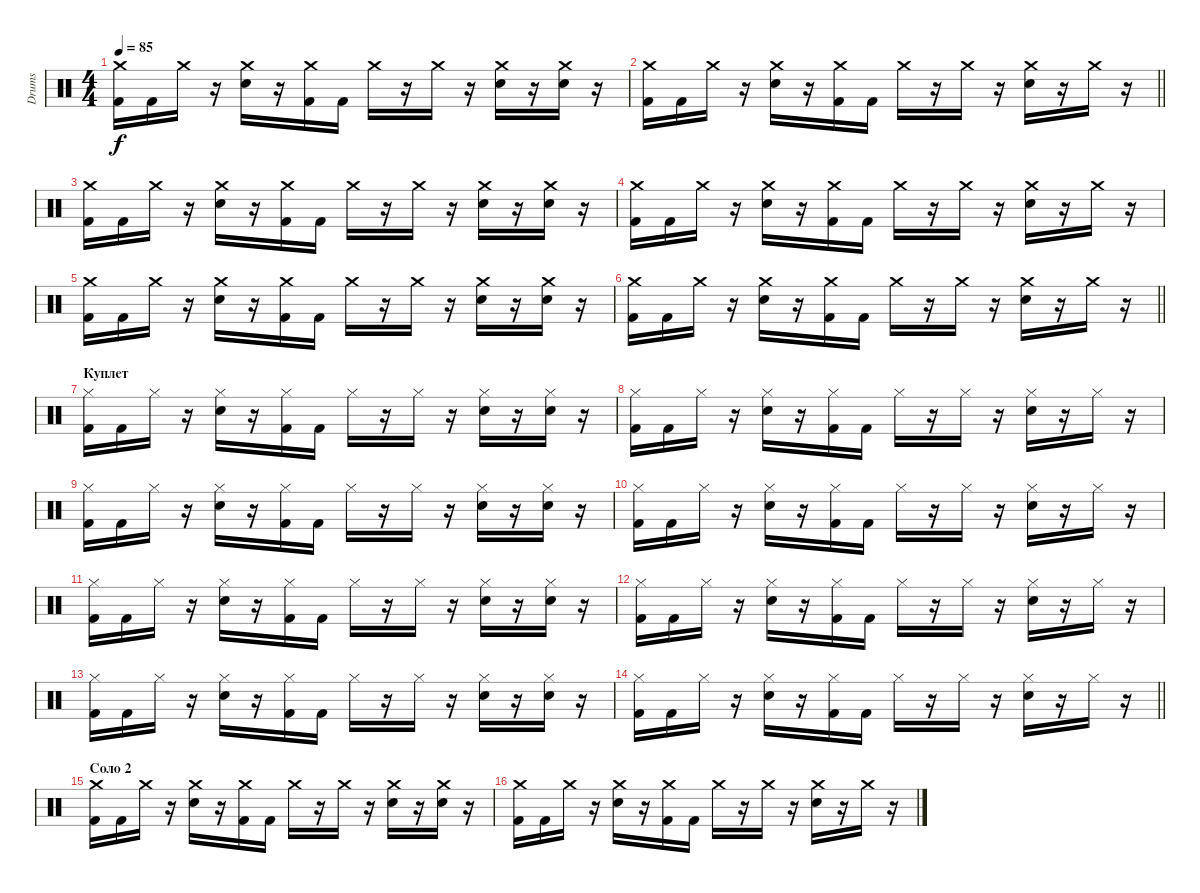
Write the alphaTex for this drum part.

\track ("Drums" "Drums") {instrument percussion}
\staff {score}
\articulation defaults
\ts (4 4)
\tempo 85
\clef neutral
\ks c
("Crash medium (hit)" "Kick (hit) 2").16{dy f} "Kick (hit) 2".16 "Crash medium (hit)".16 r.16 ("Crash medium (hit)" "Electric Snare (hit)").16 r.16 ("Crash medium (hit)" "Kick (hit) 2").16 "Kick (hit) 2".16 "Crash medium (hit)".16 r.16 "Crash medium (hit)".16 r.16 ("Crash medium (hit)" "Electric Snare (hit)").16 r.16 ("Crash medium (hit)" "Electric Snare (hit)").16 r.16 |
\barLineRight lightlight
("Crash medium (hit)" "Kick (hit) 2").16 "Kick (hit) 2".16 "Crash medium (hit)".16 r.16 ("Crash medium (hit)" "Electric Snare (hit)").16 r.16 ("Crash medium (hit)" "Kick (hit) 2").16 "Kick (hit) 2".16 "Crash medium (hit)".16 r.16 "Crash medium (hit)".16 r.16 ("Crash medium (hit)" "Electric Snare (hit)").16 r.16 "Crash medium (hit)".16 r.16 |
("Crash medium (hit)" "Kick (hit) 2").16 "Kick (hit) 2".16 "Crash medium (hit)".16 r.16 ("Crash medium (hit)" "Electric Snare (hit)").16 r.16 ("Crash medium (hit)" "Kick (hit) 2").16 "Kick (hit) 2".16 "Crash medium (hit)".16 r.16 "Crash medium (hit)".16 r.16 ("Crash medium (hit)" "Electric Snare (hit)").16 r.16 ("Crash medium (hit)" "Electric Snare (hit)").16 r.16 |
("Crash medium (hit)" "Kick (hit) 2").16 "Kick (hit) 2".16 "Crash medium (hit)".16 r.16 ("Crash medium (hit)" "Electric Snare (hit)").16 r.16 ("Crash medium (hit)" "Kick (hit) 2").16 "Kick (hit) 2".16 "Crash medium (hit)".16 r.16 "Crash medium (hit)".16 r.16 ("Crash medium (hit)" "Electric Snare (hit)").16 r.16 "Crash medium (hit)".16 r.16 |
("Crash medium (hit)" "Kick (hit) 2").16 "Kick (hit) 2".16 "Crash medium (hit)".16 r.16 ("Crash medium (hit)" "Electric Snare (hit)").16 r.16 ("Crash medium (hit)" "Kick (hit) 2").16 "Kick (hit) 2".16 "Crash medium (hit)".16 r.16 "Crash medium (hit)".16 r.16 ("Crash medium (hit)" "Electric Snare (hit)").16 r.16 ("Crash medium (hit)" "Electric Snare (hit)").16 r.16 |
\barLineRight lightlight
("Crash medium (hit)" "Kick (hit) 2").16 "Kick (hit) 2".16 "Crash medium (hit)".16 r.16 ("Crash medium (hit)" "Electric Snare (hit)").16 r.16 ("Crash medium (hit)" "Kick (hit) 2").16 "Kick (hit) 2".16 "Crash medium (hit)".16 r.16 "Crash medium (hit)".16 r.16 ("Crash medium (hit)" "Electric Snare (hit)").16 r.16 "Crash medium (hit)".16 r.16 |
\section ("" "Куплет")
("Hi-Hat (closed)" "Kick (hit) 2").16 "Kick (hit) 2".16 "Hi-Hat (closed)".16 r.16 ("Hi-Hat (closed)" "Electric Snare (hit)").16 r.16 ("Hi-Hat (closed)" "Kick (hit) 2").16 "Kick (hit) 2".16 "Hi-Hat (closed)".16 r.16 "Hi-Hat (closed)".16 r.16 ("Hi-Hat (closed)" "Electric Snare (hit)").16 r.16 ("Hi-Hat (closed)" "Electric Snare (hit)").16 r.16 |
("Hi-Hat (closed)" "Kick (hit) 2").16 "Kick (hit) 2".16 "Hi-Hat (closed)".16 r.16 ("Hi-Hat (closed)" "Electric Snare (hit)").16 r.16 ("Hi-Hat (closed)" "Kick (hit) 2").16 "Kick (hit) 2".16 "Hi-Hat (closed)".16 r.16 "Hi-Hat (closed)".16 r.16 ("Hi-Hat (closed)" "Electric Snare (hit)").16 r.16 "Hi-Hat (closed)".16 r.16 |
("Hi-Hat (closed)" "Kick (hit) 2").16 "Kick (hit) 2".16 "Hi-Hat (closed)".16 r.16 ("Hi-Hat (closed)" "Electric Snare (hit)").16 r.16 ("Hi-Hat (closed)" "Kick (hit) 2").16 "Kick (hit) 2".16 "Hi-Hat (closed)".16 r.16 "Hi-Hat (closed)".16 r.16 ("Hi-Hat (closed)" "Electric Snare (hit)").16 r.16 ("Hi-Hat (closed)" "Electric Snare (hit)").16 r.16 |
("Hi-Hat (closed)" "Kick (hit) 2").16 "Kick (hit) 2".16 "Hi-Hat (closed)".16 r.16 ("Hi-Hat (closed)" "Electric Snare (hit)").16 r.16 ("Hi-Hat (closed)" "Kick (hit) 2").16 "Kick (hit) 2".16 "Hi-Hat (closed)".16 r.16 "Hi-Hat (closed)".16 r.16 ("Hi-Hat (closed)" "Electric Snare (hit)").16 r.16 "Hi-Hat (closed)".16 r.16 |
("Hi-Hat (closed)" "Kick (hit) 2").16 "Kick (hit) 2".16 "Hi-Hat (closed)".16 r.16 ("Hi-Hat (closed)" "Electric Snare (hit)").16 r.16 ("Hi-Hat (closed)" "Kick (hit) 2").16 "Kick (hit) 2".16 "Hi-Hat (closed)".16 r.16 "Hi-Hat (closed)".16 r.16 ("Hi-Hat (closed)" "Electric Snare (hit)").16 r.16 ("Hi-Hat (closed)" "Electric Snare (hit)").16 r.16 |
("Hi-Hat (closed)" "Kick (hit) 2").16 "Kick (hit) 2".16 "Hi-Hat (closed)".16 r.16 ("Hi-Hat (closed)" "Electric Snare (hit)").16 r.16 ("Hi-Hat (closed)" "Kick (hit) 2").16 "Kick (hit) 2".16 "Hi-Hat (closed)".16 r.16 "Hi-Hat (closed)".16 r.16 ("Hi-Hat (closed)" "Electric Snare (hit)").16 r.16 "Hi-Hat (closed)".16 r.16 |
("Hi-Hat (closed)" "Kick (hit) 2").16 "Kick (hit) 2".16 "Hi-Hat (closed)".16 r.16 ("Hi-Hat (closed)" "Electric Snare (hit)").16 r.16 ("Hi-Hat (closed)" "Kick (hit) 2").16 "Kick (hit) 2".16 "Hi-Hat (closed)".16 r.16 "Hi-Hat (closed)".16 r.16 ("Hi-Hat (closed)" "Electric Snare (hit)").16 r.16 ("Hi-Hat (closed)" "Electric Snare (hit)").16 r.16 |
\barLineRight lightlight
("Hi-Hat (closed)" "Kick (hit) 2").16 "Kick (hit) 2".16 "Hi-Hat (closed)".16 r.16 ("Hi-Hat (closed)" "Electric Snare (hit)").16 r.16 ("Hi-Hat (closed)" "Kick (hit) 2").16 "Kick (hit) 2".16 "Hi-Hat (closed)".16 r.16 "Hi-Hat (closed)".16 r.16 ("Hi-Hat (closed)" "Electric Snare (hit)").16 r.16 "Hi-Hat (closed)".16 r.16 |
\section ("" "Соло 2")
("Crash medium (hit)" "Kick (hit) 2").16 "Kick (hit) 2".16 "Crash medium (hit)".16 r.16 ("Crash medium (hit)" "Electric Snare (hit)").16 r.16 ("Crash medium (hit)" "Kick (hit) 2").16 "Kick (hit) 2".16 "Crash medium (hit)".16 r.16 "Crash medium (hit)".16 r.16 ("Crash medium (hit)" "Electric Snare (hit)").16 r.16 ("Crash medium (hit)" "Electric Snare (hit)").16 r.16 |
("Crash medium (hit)" "Kick (hit) 2").16 "Kick (hit) 2".16 "Crash medium (hit)".16 r.16 ("Crash medium (hit)" "Electric Snare (hit)").16 r.16 ("Crash medium (hit)" "Kick (hit) 2").16 "Kick (hit) 2".16 "Crash medium (hit)".16 r.16 "Crash medium (hit)".16 r.16 ("Crash medium (hit)" "Electric Snare (hit)").16 r.16 "Crash medium (hit)".16 r.16
